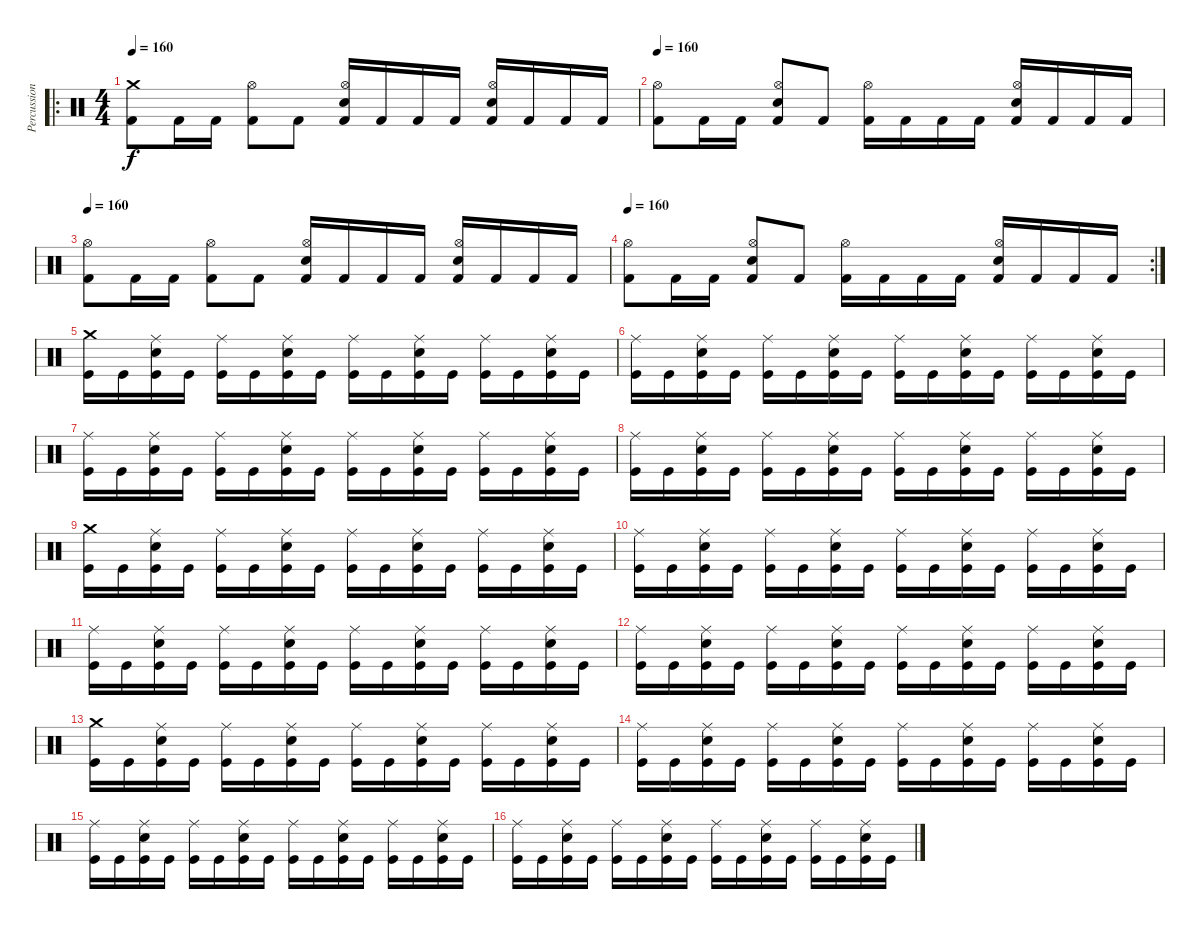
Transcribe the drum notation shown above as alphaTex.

\track ("Percussions" "Percussion") {instrument percussion}
\staff {score}
\articulation defaults
\ro
\ts (4 4)
\tempo 160
\clef neutral
\ks c
("Kick (hit) 2" "Crash medium (hit)").8{dy f} "Kick (hit) 2".16 "Kick (hit) 2".16 ("Kick (hit) 2" "Hi-Hat (open)").8 "Kick (hit) 2".8 ("Kick (hit) 2" "Electric Snare (hit)" "Hi-Hat (open)").16 "Kick (hit) 2".16 "Kick (hit) 2".16 "Kick (hit) 2".16 ("Kick (hit) 2" "Electric Snare (hit)" "Hi-Hat (open)").16 "Kick (hit) 2".16 "Kick (hit) 2".16 "Kick (hit) 2".16 |
\tempo 160
("Kick (hit) 2" "Hi-Hat (open)").8 "Kick (hit) 2".16 "Kick (hit) 2".16 ("Kick (hit) 2" "Electric Snare (hit)" "Hi-Hat (open)").8 "Kick (hit) 2".8 ("Kick (hit) 2" "Hi-Hat (open)").16 "Kick (hit) 2".16 "Kick (hit) 2".16 "Kick (hit) 2".16 ("Kick (hit) 2" "Electric Snare (hit)" "Hi-Hat (open)").16 "Kick (hit) 2".16 "Kick (hit) 2".16 "Kick (hit) 2".16 |
\tempo 160
("Kick (hit) 2" "Hi-Hat (open)").8 "Kick (hit) 2".16 "Kick (hit) 2".16 ("Kick (hit) 2" "Hi-Hat (open)").8 "Kick (hit) 2".8 ("Kick (hit) 2" "Electric Snare (hit)" "Hi-Hat (open)").16 "Kick (hit) 2".16 "Kick (hit) 2".16 "Kick (hit) 2".16 ("Kick (hit) 2" "Electric Snare (hit)" "Hi-Hat (open)").16 "Kick (hit) 2".16 "Kick (hit) 2".16 "Kick (hit) 2".16 |
\rc 2
\tempo 160
("Kick (hit) 2" "Hi-Hat (open)").8 "Kick (hit) 2".16 "Kick (hit) 2".16 ("Kick (hit) 2" "Electric Snare (hit)" "Hi-Hat (open)").8 "Kick (hit) 2".8 ("Kick (hit) 2" "Hi-Hat (open)").16 "Kick (hit) 2".16 "Kick (hit) 2".16 "Kick (hit) 2".16 ("Kick (hit) 2" "Electric Snare (hit)" "Hi-Hat (open)").16 "Kick (hit) 2".16 "Kick (hit) 2".16 "Kick (hit) 2".16 |
("Kick (hit)" "Crash medium (hit)").16 "Kick (hit)".16 ("Kick (hit)" "Snare (hit) 2" "Ride (middle)").16 "Kick (hit)".16 ("Kick (hit)" "Ride (middle)").16 "Kick (hit)".16 ("Kick (hit)" "Snare (hit) 2" "Ride (middle)").16 "Kick (hit)".16 ("Kick (hit)" "Ride (middle)").16 "Kick (hit)".16 ("Kick (hit)" "Snare (hit) 2" "Ride (middle)").16 "Kick (hit)".16 ("Kick (hit)" "Ride (middle)").16 "Kick (hit)".16 ("Kick (hit)" "Snare (hit) 2" "Ride (middle)").16 "Kick (hit)".16 |
("Kick (hit)" "Ride (middle)").16 "Kick (hit)".16 ("Kick (hit)" "Snare (hit) 2" "Ride (middle)").16 "Kick (hit)".16 ("Kick (hit)" "Ride (middle)").16 "Kick (hit)".16 ("Kick (hit)" "Snare (hit) 2" "Ride (middle)").16 "Kick (hit)".16 ("Kick (hit)" "Ride (middle)").16 "Kick (hit)".16 ("Kick (hit)" "Snare (hit) 2" "Ride (middle)").16 "Kick (hit)".16 ("Kick (hit)" "Ride (middle)").16 "Kick (hit)".16 ("Kick (hit)" "Snare (hit) 2" "Ride (middle)").16 "Kick (hit)".16 |
("Kick (hit)" "Ride (middle)").16 "Kick (hit)".16 ("Kick (hit)" "Snare (hit) 2" "Ride (middle)").16 "Kick (hit)".16 ("Kick (hit)" "Ride (middle)").16 "Kick (hit)".16 ("Kick (hit)" "Snare (hit) 2" "Ride (middle)").16 "Kick (hit)".16 ("Kick (hit)" "Ride (middle)").16 "Kick (hit)".16 ("Kick (hit)" "Snare (hit) 2" "Ride (middle)").16 "Kick (hit)".16 ("Kick (hit)" "Ride (middle)").16 "Kick (hit)".16 ("Kick (hit)" "Snare (hit) 2" "Ride (middle)").16 "Kick (hit)".16 |
("Kick (hit)" "Ride (middle)").16 "Kick (hit)".16 ("Kick (hit)" "Snare (hit) 2" "Ride (middle)").16 "Kick (hit)".16 ("Kick (hit)" "Ride (middle)").16 "Kick (hit)".16 ("Kick (hit)" "Snare (hit) 2" "Ride (middle)").16 "Kick (hit)".16 ("Kick (hit)" "Ride (middle)").16 "Kick (hit)".16 ("Kick (hit)" "Snare (hit) 2" "Ride (middle)").16 "Kick (hit)".16 ("Kick (hit)" "Ride (middle)").16 "Kick (hit)".16 ("Kick (hit)" "Snare (hit) 2" "Ride (middle)").16 "Kick (hit)".16 |
("Kick (hit)" "Crash medium (hit)").16 "Kick (hit)".16 ("Kick (hit)" "Snare (hit) 2" "Ride (middle)").16 "Kick (hit)".16 ("Kick (hit)" "Ride (middle)").16 "Kick (hit)".16 ("Kick (hit)" "Snare (hit) 2" "Ride (middle)").16 "Kick (hit)".16 ("Kick (hit)" "Ride (middle)").16 "Kick (hit)".16 ("Kick (hit)" "Snare (hit) 2" "Ride (middle)").16 "Kick (hit)".16 ("Kick (hit)" "Ride (middle)").16 "Kick (hit)".16 ("Kick (hit)" "Snare (hit) 2" "Ride (middle)").16 "Kick (hit)".16 |
("Kick (hit)" "Ride (middle)").16 "Kick (hit)".16 ("Kick (hit)" "Snare (hit) 2" "Ride (middle)").16 "Kick (hit)".16 ("Kick (hit)" "Ride (middle)").16 "Kick (hit)".16 ("Kick (hit)" "Snare (hit) 2" "Ride (middle)").16 "Kick (hit)".16 ("Kick (hit)" "Ride (middle)").16 "Kick (hit)".16 ("Kick (hit)" "Snare (hit) 2" "Ride (middle)").16 "Kick (hit)".16 ("Kick (hit)" "Ride (middle)").16 "Kick (hit)".16 ("Kick (hit)" "Snare (hit) 2" "Ride (middle)").16 "Kick (hit)".16 |
("Kick (hit)" "Ride (middle)").16 "Kick (hit)".16 ("Kick (hit)" "Snare (hit) 2" "Ride (middle)").16 "Kick (hit)".16 ("Kick (hit)" "Ride (middle)").16 "Kick (hit)".16 ("Kick (hit)" "Snare (hit) 2" "Ride (middle)").16 "Kick (hit)".16 ("Kick (hit)" "Ride (middle)").16 "Kick (hit)".16 ("Kick (hit)" "Snare (hit) 2" "Ride (middle)").16 "Kick (hit)".16 ("Kick (hit)" "Ride (middle)").16 "Kick (hit)".16 ("Kick (hit)" "Snare (hit) 2" "Ride (middle)").16 "Kick (hit)".16 |
("Kick (hit)" "Ride (middle)").16 "Kick (hit)".16 ("Kick (hit)" "Snare (hit) 2" "Ride (middle)").16 "Kick (hit)".16 ("Kick (hit)" "Ride (middle)").16 "Kick (hit)".16 ("Kick (hit)" "Snare (hit) 2" "Ride (middle)").16 "Kick (hit)".16 ("Kick (hit)" "Ride (middle)").16 "Kick (hit)".16 ("Kick (hit)" "Snare (hit) 2" "Ride (middle)").16 "Kick (hit)".16 ("Kick (hit)" "Ride (middle)").16 "Kick (hit)".16 ("Kick (hit)" "Snare (hit) 2" "Ride (middle)").16 "Kick (hit)".16 |
("Kick (hit)" "Crash medium (hit)").16 "Kick (hit)".16 ("Kick (hit)" "Snare (hit) 2" "Ride (middle)").16 "Kick (hit)".16 ("Kick (hit)" "Ride (middle)").16 "Kick (hit)".16 ("Kick (hit)" "Snare (hit) 2" "Ride (middle)").16 "Kick (hit)".16 ("Kick (hit)" "Ride (middle)").16 "Kick (hit)".16 ("Kick (hit)" "Snare (hit) 2" "Ride (middle)").16 "Kick (hit)".16 ("Kick (hit)" "Ride (middle)").16 "Kick (hit)".16 ("Kick (hit)" "Snare (hit) 2" "Ride (middle)").16 "Kick (hit)".16 |
("Kick (hit)" "Ride (middle)").16 "Kick (hit)".16 ("Kick (hit)" "Snare (hit) 2" "Ride (middle)").16 "Kick (hit)".16 ("Kick (hit)" "Ride (middle)").16 "Kick (hit)".16 ("Kick (hit)" "Snare (hit) 2" "Ride (middle)").16 "Kick (hit)".16 ("Kick (hit)" "Ride (middle)").16 "Kick (hit)".16 ("Kick (hit)" "Snare (hit) 2" "Ride (middle)").16 "Kick (hit)".16 ("Kick (hit)" "Ride (middle)").16 "Kick (hit)".16 ("Kick (hit)" "Snare (hit) 2" "Ride (middle)").16 "Kick (hit)".16 |
("Kick (hit)" "Ride (middle)").16 "Kick (hit)".16 ("Kick (hit)" "Snare (hit) 2" "Ride (middle)").16 "Kick (hit)".16 ("Kick (hit)" "Ride (middle)").16 "Kick (hit)".16 ("Kick (hit)" "Snare (hit) 2" "Ride (middle)").16 "Kick (hit)".16 ("Kick (hit)" "Ride (middle)").16 "Kick (hit)".16 ("Kick (hit)" "Snare (hit) 2" "Ride (middle)").16 "Kick (hit)".16 ("Kick (hit)" "Ride (middle)").16 "Kick (hit)".16 ("Kick (hit)" "Snare (hit) 2" "Ride (middle)").16 "Kick (hit)".16 |
("Kick (hit)" "Ride (middle)").16 "Kick (hit)".16 ("Kick (hit)" "Snare (hit) 2" "Ride (middle)").16 "Kick (hit)".16 ("Kick (hit)" "Ride (middle)").16 "Kick (hit)".16 ("Kick (hit)" "Snare (hit) 2" "Ride (middle)").16 "Kick (hit)".16 ("Kick (hit)" "Ride (middle)").16 "Kick (hit)".16 ("Kick (hit)" "Snare (hit) 2" "Ride (middle)").16 "Kick (hit)".16 ("Kick (hit)" "Ride (middle)").16 "Kick (hit)".16 ("Kick (hit)" "Snare (hit) 2" "Ride (middle)").16 "Kick (hit)".16
